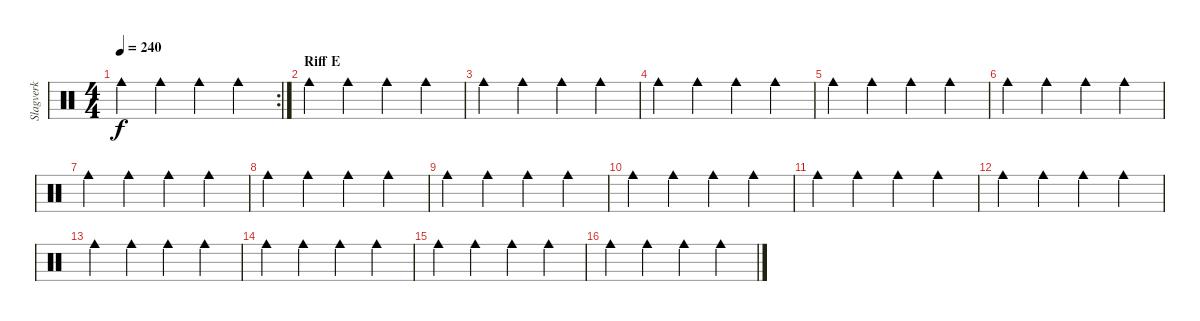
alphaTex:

\track ("Slagverk" "Slagverk") {instrument percussion}
\staff {score}
\articulation defaults
\rc 2
\ts (4 4)
\tempo 240
\clef neutral
\ks c "Cowbell medium (hit)".4{dy f} "Cowbell medium (hit)".4 "Cowbell medium (hit)".4 "Cowbell medium (hit)".4
|
\section ("" "Riff E")
"Cowbell medium (hit)".4 "Cowbell medium (hit)".4 "Cowbell medium (hit)".4 "Cowbell medium (hit)".4 |
"Cowbell medium (hit)".4 "Cowbell medium (hit)".4 "Cowbell medium (hit)".4 "Cowbell medium (hit)".4 |
"Cowbell medium (hit)".4 "Cowbell medium (hit)".4 "Cowbell medium (hit)".4 "Cowbell medium (hit)".4 |
"Cowbell medium (hit)".4 "Cowbell medium (hit)".4 "Cowbell medium (hit)".4 "Cowbell medium (hit)".4 |
"Cowbell medium (hit)".4 "Cowbell medium (hit)".4 "Cowbell medium (hit)".4 "Cowbell medium (hit)".4 |
"Cowbell medium (hit)".4 "Cowbell medium (hit)".4 "Cowbell medium (hit)".4 "Cowbell medium (hit)".4 |
"Cowbell medium (hit)".4 "Cowbell medium (hit)".4 "Cowbell medium (hit)".4 "Cowbell medium (hit)".4 |
"Cowbell medium (hit)".4 "Cowbell medium (hit)".4 "Cowbell medium (hit)".4 "Cowbell medium (hit)".4 |
"Cowbell medium (hit)".4 "Cowbell medium (hit)".4 "Cowbell medium (hit)".4 "Cowbell medium (hit)".4 |
"Cowbell medium (hit)".4 "Cowbell medium (hit)".4 "Cowbell medium (hit)".4 "Cowbell medium (hit)".4 |
"Cowbell medium (hit)".4 "Cowbell medium (hit)".4 "Cowbell medium (hit)".4 "Cowbell medium (hit)".4 |
"Cowbell medium (hit)".4 "Cowbell medium (hit)".4 "Cowbell medium (hit)".4 "Cowbell medium (hit)".4 |
"Cowbell medium (hit)".4 "Cowbell medium (hit)".4 "Cowbell medium (hit)".4 "Cowbell medium (hit)".4 |
"Cowbell medium (hit)".4 "Cowbell medium (hit)".4 "Cowbell medium (hit)".4 "Cowbell medium (hit)".4 |
"Cowbell medium (hit)".4 "Cowbell medium (hit)".4 "Cowbell medium (hit)".4 "Cowbell medium (hit)".4
